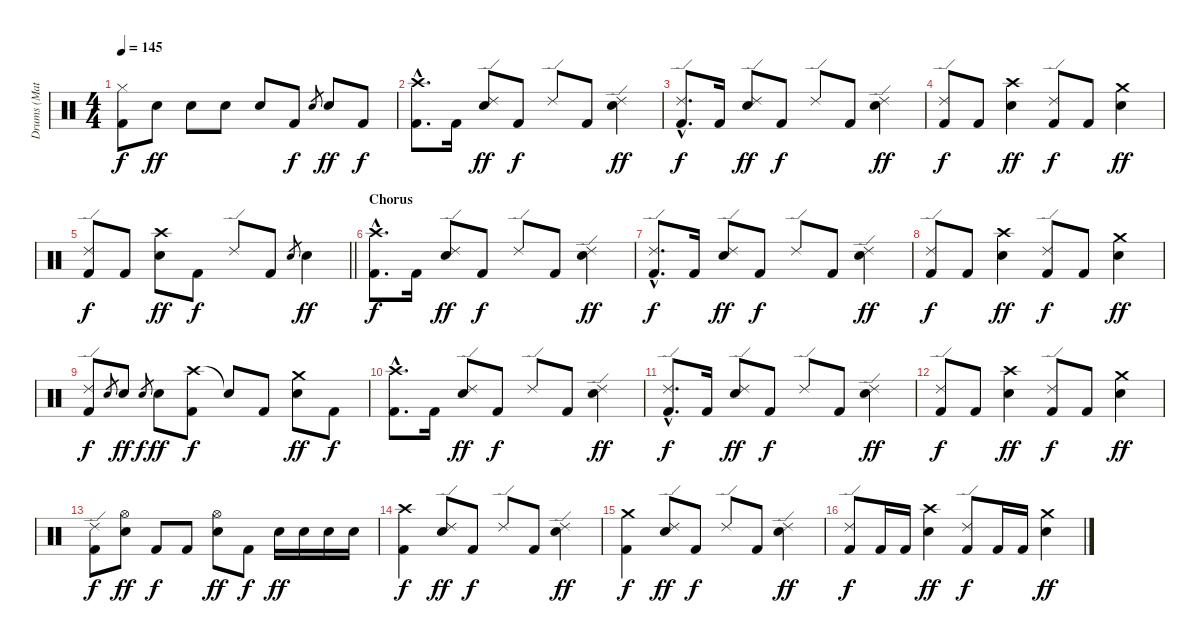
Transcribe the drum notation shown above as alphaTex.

\track ("Drums (Matt)" "Drums (Mat") {instrument percussion}
\staff {score}
\articulation defaults
\ts (4 4)
\tempo 145
\clef neutral
\ks c
("Hi-Hat (closed)" "Kick (hit) 2").8{dy f} "Snare (hit) 2".8{dy ff} "Snare (hit) 2".8 "Snare (hit) 2".8 "Snare (hit) 2".8 "Kick (hit) 2".8{dy f} "Snare (hit) 2".8{gr} "Snare (hit) 2".8{dy ff} "Kick (hit) 2".8{dy f} |
("Crash high (hit)"{hac} "Kick (hit) 2"{hac}).8{d} "Kick (hit) 2".16 ("Ride (edge) 2" "Snare (hit) 2").8{dy ff} "Kick (hit) 2".8{dy f} "Ride (edge) 2".8 "Kick (hit) 2".8 ("Ride (edge) 2" "Snare (hit) 2").4{dy ff} |
("Ride (edge) 2"{hac} "Kick (hit) 2"{hac}).8{d dy f} "Kick (hit) 2".16 ("Ride (edge) 2" "Snare (hit) 2").8{dy ff} "Kick (hit) 2".8{dy f} "Ride (edge) 2".8 "Kick (hit) 2".8 ("Ride (edge) 2" "Snare (hit) 2").4{dy ff} |
("Ride (edge) 2" "Kick (hit) 2").8{dy f} "Kick (hit) 2".8 ("Crash high (hit)" "Snare (hit) 2").4{dy ff} ("Ride (edge) 2" "Kick (hit) 2").8{dy f} "Kick (hit) 2".8 ("Crash medium (hit)" "Snare (hit) 2").4{dy ff} |
\barLineRight lightlight
("Ride (edge) 2" "Kick (hit) 2").8{dy f} "Kick (hit) 2".8 ("Crash high (hit)" "Snare (hit) 2").8{dy ff} "Kick (hit) 2".8{dy f} "Ride (edge) 2".8 "Kick (hit) 2".8 "Snare (hit) 2".8{gr} "Snare (hit) 2".4{dy ff} |
\section ("" "Chorus")
("Crash high (hit)"{hac} "Kick (hit) 2"{hac}).8{d dy f} "Kick (hit) 2".16 ("Ride (edge) 2" "Snare (hit) 2").8{dy ff} "Kick (hit) 2".8{dy f} "Ride (edge) 2".8 "Kick (hit) 2".8 ("Ride (edge) 2" "Snare (hit) 2").4{dy ff} |
("Ride (edge) 2"{hac} "Kick (hit) 2"{hac}).8{d dy f} "Kick (hit) 2".16 ("Ride (edge) 2" "Snare (hit) 2").8{dy ff} "Kick (hit) 2".8{dy f} "Ride (edge) 2".8 "Kick (hit) 2".8 ("Ride (edge) 2" "Snare (hit) 2").4{dy ff} |
("Ride (edge) 2" "Kick (hit) 2").8{dy f} "Kick (hit) 2".8 ("Crash high (hit)" "Snare (hit) 2").4{dy ff} ("Ride (edge) 2" "Kick (hit) 2").8{dy f} "Kick (hit) 2".8 ("Crash medium (hit)" "Snare (hit) 2").4{dy ff} |
("Ride (edge) 2" "Kick (hit) 2").8{dy f} "Snare (hit) 2".8{gr} "Snare (hit) 2".8{dy ff} "Snare (hit) 2".8{gr dy f} "Snare (hit) 2".8{dy ff} ("Crash high (hit)" "Kick (hit) 2").8{dy f} "Snare (hit)"{t}.8 "Kick (hit) 2".8 ("Crash medium (hit)" "Snare (hit) 2").8{dy ff} "Kick (hit) 2".8{dy f} |
("Crash high (hit)"{hac} "Kick (hit) 2"{hac}).8{d} "Kick (hit) 2".16 ("Ride (edge) 2" "Snare (hit) 2").8{dy ff} "Kick (hit) 2".8{dy f} "Ride (edge) 2".8 "Kick (hit) 2".8 ("Ride (edge) 2" "Snare (hit) 2").4{dy ff} |
("Ride (edge) 2"{hac} "Kick (hit) 2"{hac}).8{d dy f} "Kick (hit) 2".16 ("Ride (edge) 2" "Snare (hit) 2").8{dy ff} "Kick (hit) 2".8{dy f} "Ride (edge) 2".8 "Kick (hit) 2".8 ("Ride (edge) 2" "Snare (hit) 2").4{dy ff} |
("Ride (edge) 2" "Kick (hit) 2").8{dy f} "Kick (hit) 2".8 ("Crash high (hit)" "Snare (hit) 2").4{dy ff} ("Ride (edge) 2" "Kick (hit) 2").8{dy f} "Kick (hit) 2".8 ("Crash medium (hit)" "Snare (hit) 2").4{dy ff} |
("Ride (edge) 2" "Kick (hit) 2").8{dy f} ("Hi-Hat (open)" "Snare (hit) 2").8{dy ff} "Kick (hit) 2".8{dy f} "Kick (hit) 2".8 ("Hi-Hat (open)" "Snare (hit) 2").8{dy ff} "Kick (hit) 2".8{dy f} "Snare (hit) 2".16{dy ff} "Snare (hit) 2".16 "Snare (hit) 2".16 "Snare (hit) 2".16 |
("Crash high (hit)" "Kick (hit) 2").4{dy f} ("Ride (edge) 2" "Snare (hit) 2").8{dy ff} "Kick (hit) 2".8{dy f} "Ride (edge) 2".8 "Kick (hit) 2".8 ("Ride (edge) 2" "Snare (hit) 2").4{dy ff} |
("Crash medium (hit)" "Kick (hit) 2").4{dy f} ("Ride (edge) 2" "Snare (hit) 2").8{dy ff} "Kick (hit) 2".8{dy f} "Ride (edge) 2".8 "Kick (hit) 2".8 ("Ride (edge) 2" "Snare (hit) 2").4{dy ff} |
("Ride (edge) 2" "Kick (hit) 2").8{dy f} "Kick (hit) 2".16 "Kick (hit) 2".16 ("Crash high (hit)" "Snare (hit) 2").4{dy ff} ("Ride (edge) 2" "Kick (hit) 2").8{dy f} "Kick (hit) 2".16 "Kick (hit) 2".16 ("Crash medium (hit)" "Snare (hit) 2").4{dy ff}
